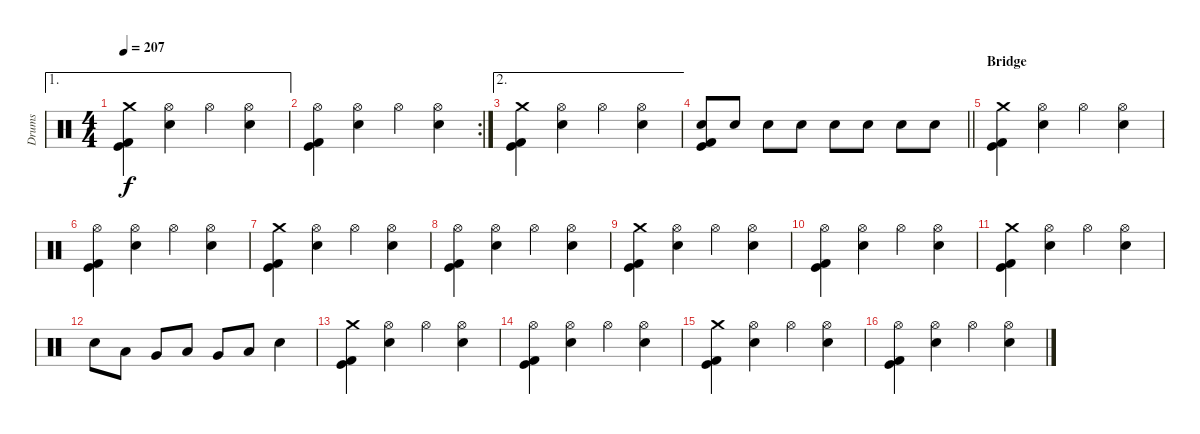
\track ("Drums" "Drums") {instrument percussion}
\staff {score}
\articulation defaults
\ae 1
\ts (4 4)
\tempo 207
\clef neutral
\ks c
("Crash medium (hit)" "Kick (hit)" "Kick (hit) 2").4{dy f} ("Hi-Hat (open)" "Electric Snare (hit)").4 "Hi-Hat (open)".4 ("Hi-Hat (open)" "Electric Snare (hit)").4 |
\rc 2
("Hi-Hat (open)" "Kick (hit)" "Kick (hit) 2").4 ("Hi-Hat (open)" "Electric Snare (hit)").4 "Hi-Hat (open)".4 ("Hi-Hat (open)" "Electric Snare (hit)").4 |
\ae 2
("Crash medium (hit)" "Kick (hit)" "Kick (hit) 2").4 ("Hi-Hat (open)" "Electric Snare (hit)").4 "Hi-Hat (open)".4 ("Hi-Hat (open)" "Electric Snare (hit)").4 |
\barLineRight lightlight
("Electric Snare (hit)" "Kick (hit)" "Kick (hit) 2").8 "Electric Snare (hit)".8 "Electric Snare (hit)".8 "Electric Snare (hit)".8 "Electric Snare (hit)".8 "Electric Snare (hit)".8 "Electric Snare (hit)".8 "Electric Snare (hit)".8 |
\section ("" "Bridge")
("Crash medium (hit)" "Kick (hit)" "Kick (hit) 2").4 ("Hi-Hat (open)" "Electric Snare (hit)").4 "Hi-Hat (open)".4 ("Hi-Hat (open)" "Electric Snare (hit)").4 |
("Hi-Hat (open)" "Kick (hit)" "Kick (hit) 2").4 ("Hi-Hat (open)" "Electric Snare (hit)").4 "Hi-Hat (open)".4 ("Hi-Hat (open)" "Electric Snare (hit)").4 |
("Crash medium (hit)" "Kick (hit)" "Kick (hit) 2").4 ("Hi-Hat (open)" "Electric Snare (hit)").4 "Hi-Hat (open)".4 ("Hi-Hat (open)" "Electric Snare (hit)").4 |
("Hi-Hat (open)" "Kick (hit)" "Kick (hit) 2").4 ("Hi-Hat (open)" "Electric Snare (hit)").4 "Hi-Hat (open)".4 ("Hi-Hat (open)" "Electric Snare (hit)").4 |
("Crash medium (hit)" "Kick (hit)" "Kick (hit) 2").4 ("Hi-Hat (open)" "Electric Snare (hit)").4 "Hi-Hat (open)".4 ("Hi-Hat (open)" "Electric Snare (hit)").4 |
("Hi-Hat (open)" "Kick (hit)" "Kick (hit) 2").4 ("Hi-Hat (open)" "Electric Snare (hit)").4 "Hi-Hat (open)".4 ("Hi-Hat (open)" "Electric Snare (hit)").4 |
("Crash medium (hit)" "Kick (hit)" "Kick (hit) 2").4 ("Hi-Hat (open)" "Electric Snare (hit)").4 "Hi-Hat (open)".4 ("Hi-Hat (open)" "Electric Snare (hit)").4 |
"Electric Snare (hit)".8 "Low Tom (hit)".8 "Very Low Tom (hit)".8 "Low Tom (hit)".8 "Very Low Tom (hit)".8 "Low Tom (hit)".8 "Electric Snare (hit)".4 |
("Crash medium (hit)" "Kick (hit)" "Kick (hit) 2").4 ("Hi-Hat (open)" "Electric Snare (hit)").4 "Hi-Hat (open)".4 ("Hi-Hat (open)" "Electric Snare (hit)").4 |
("Hi-Hat (open)" "Kick (hit)" "Kick (hit) 2").4 ("Hi-Hat (open)" "Electric Snare (hit)").4 "Hi-Hat (open)".4 ("Hi-Hat (open)" "Electric Snare (hit)").4 |
("Crash medium (hit)" "Kick (hit)" "Kick (hit) 2").4 ("Hi-Hat (open)" "Electric Snare (hit)").4 "Hi-Hat (open)".4 ("Hi-Hat (open)" "Electric Snare (hit)").4 |
("Hi-Hat (open)" "Kick (hit)" "Kick (hit) 2").4 ("Hi-Hat (open)" "Electric Snare (hit)").4 "Hi-Hat (open)".4 ("Hi-Hat (open)" "Electric Snare (hit)").4
